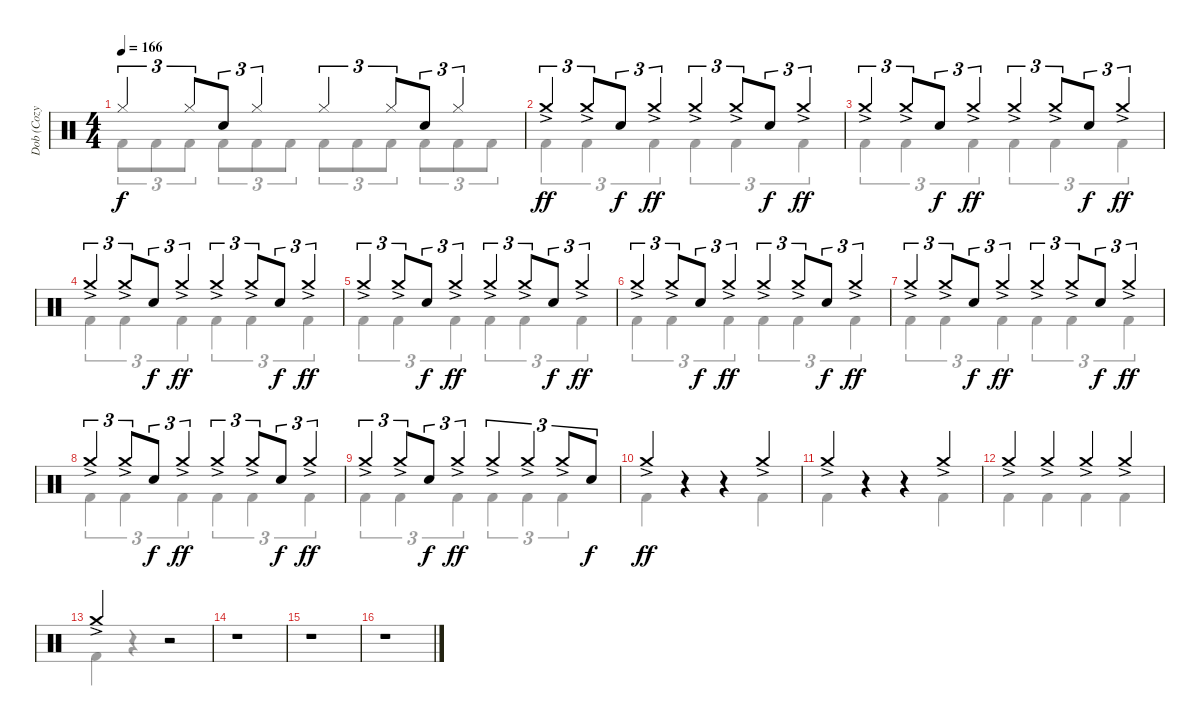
\track ("Dob (Cozy Powell)" "Dob (Cozy ") {instrument percussion}
\staff {score}
\articulation defaults
\voice
\ts (4 4)
\tempo 166
\clef neutral
\ks c "Hi-Hat (closed)".4{tu (3 2) dy f} "Hi-Hat (closed)".8{tu (3 2) beam merge} "Electric Snare (hit)".8{tu (3 2)} "Hi-Hat (closed)".4{tu (3 2)} "Hi-Hat (closed)".4{tu (3 2)} "Hi-Hat (closed)".8{tu (3 2) beam merge} "Electric Snare (hit)".8{tu (3 2)} "Hi-Hat (closed)".4{tu (3 2)}
|
"Crash medium (hit)"{ac}.4{tu (3 2) dy ff} "Crash medium (hit)"{ac}.8{tu (3 2) beam merge} "Electric Snare (hit)".8{tu (3 2) dy f} "Crash medium (hit)"{ac}.4{tu (3 2) dy ff} "Crash medium (hit)"{ac}.4{tu (3 2)} "Crash medium (hit)"{ac}.8{tu (3 2) beam merge} "Electric Snare (hit)".8{tu (3 2) dy f} "Crash medium (hit)"{ac}.4{tu (3 2) dy ff} |
"Crash medium (hit)"{ac}.4{tu (3 2)} "Crash medium (hit)"{ac}.8{tu (3 2) beam merge} "Electric Snare (hit)".8{tu (3 2) dy f} "Crash medium (hit)"{ac}.4{tu (3 2) dy ff} "Crash medium (hit)"{ac}.4{tu (3 2)} "Crash medium (hit)"{ac}.8{tu (3 2) beam merge} "Electric Snare (hit)".8{tu (3 2) dy f} "Crash medium (hit)"{ac}.4{tu (3 2) dy ff} |
"Crash medium (hit)"{ac}.4{tu (3 2)} "Crash medium (hit)"{ac}.8{tu (3 2) beam merge} "Electric Snare (hit)".8{tu (3 2) dy f} "Crash medium (hit)"{ac}.4{tu (3 2) dy ff} "Crash medium (hit)"{ac}.4{tu (3 2)} "Crash medium (hit)"{ac}.8{tu (3 2) beam merge} "Electric Snare (hit)".8{tu (3 2) dy f} "Crash medium (hit)"{ac}.4{tu (3 2) dy ff} |
"Crash medium (hit)"{ac}.4{tu (3 2)} "Crash medium (hit)"{ac}.8{tu (3 2) beam merge} "Electric Snare (hit)".8{tu (3 2) dy f} "Crash medium (hit)"{ac}.4{tu (3 2) dy ff} "Crash medium (hit)"{ac}.4{tu (3 2)} "Crash medium (hit)"{ac}.8{tu (3 2) beam merge} "Electric Snare (hit)".8{tu (3 2) dy f} "Crash medium (hit)"{ac}.4{tu (3 2) dy ff} |
"Crash medium (hit)"{ac}.4{tu (3 2)} "Crash medium (hit)"{ac}.8{tu (3 2) beam merge} "Electric Snare (hit)".8{tu (3 2) dy f} "Crash medium (hit)"{ac}.4{tu (3 2) dy ff} "Crash medium (hit)"{ac}.4{tu (3 2)} "Crash medium (hit)"{ac}.8{tu (3 2) beam merge} "Electric Snare (hit)".8{tu (3 2) dy f} "Crash medium (hit)"{ac}.4{tu (3 2) dy ff} |
"Crash medium (hit)"{ac}.4{tu (3 2)} "Crash medium (hit)"{ac}.8{tu (3 2) beam merge} "Electric Snare (hit)".8{tu (3 2) dy f} "Crash medium (hit)"{ac}.4{tu (3 2) dy ff} "Crash medium (hit)"{ac}.4{tu (3 2)} "Crash medium (hit)"{ac}.8{tu (3 2) beam merge} "Electric Snare (hit)".8{tu (3 2) dy f} "Crash medium (hit)"{ac}.4{tu (3 2) dy ff} |
"Crash medium (hit)"{ac}.4{tu (3 2)} "Crash medium (hit)"{ac}.8{tu (3 2) beam merge} "Electric Snare (hit)".8{tu (3 2) dy f} "Crash medium (hit)"{ac}.4{tu (3 2) dy ff} "Crash medium (hit)"{ac}.4{tu (3 2)} "Crash medium (hit)"{ac}.8{tu (3 2) beam merge} "Electric Snare (hit)".8{tu (3 2) dy f} "Crash medium (hit)"{ac}.4{tu (3 2) dy ff} |
"Crash medium (hit)"{ac}.4{tu (3 2)} "Crash medium (hit)"{ac}.8{tu (3 2) beam merge} "Electric Snare (hit)".8{tu (3 2) dy f} "Crash medium (hit)"{ac}.4{tu (3 2) dy ff} "Crash medium (hit)"{ac}.4{tu (3 2)} "Crash medium (hit)"{ac}.4{tu (3 2)} "Crash medium (hit)"{ac}.8{tu (3 2)} "Electric Snare (hit)".8{tu (3 2) dy f} |
"Crash medium (hit)"{ac}.4{dy ff} r.4 r.4 "Crash medium (hit)"{ac}.4 |
"Crash medium (hit)"{ac}.4 r.4 r.4 "Crash medium (hit)"{ac}.4 |
"Crash medium (hit)"{ac}.4 "Crash medium (hit)"{ac}.4 "Crash medium (hit)"{ac}.4 "Crash medium (hit)"{ac}.4 |
"Crash medium (hit)"{ac}.2 r.2 |
r.1 |
r.1 |
r.1
\voice
\clef neutral
\ottava regular
\simile none
\ks c "Kick (hit) 2".8{tu (3 2) dy f} "Kick (hit) 2".8{tu (3 2)} "Kick (hit) 2".8{tu (3 2)} "Kick (hit) 2".8{tu (3 2)} "Kick (hit) 2".8{tu (3 2)} "Kick (hit) 2".8{tu (3 2)} "Kick (hit) 2".8{tu (3 2)} "Kick (hit) 2".8{tu (3 2)} "Kick (hit) 2".8{tu (3 2)} "Kick (hit) 2".8{tu (3 2)} "Kick (hit) 2".8{tu (3 2)} "Kick (hit) 2".8{tu (3 2)}
|
"Kick (hit) 2".4{tu (3 2)} "Kick (hit) 2".4{tu (3 2)} "Kick (hit) 2".4{tu (3 2)} "Kick (hit) 2".4{tu (3 2)} "Kick (hit) 2".4{tu (3 2)} "Kick (hit) 2".4{tu (3 2)} |
"Kick (hit) 2".4{tu (3 2)} "Kick (hit) 2".4{tu (3 2)} "Kick (hit) 2".4{tu (3 2)} "Kick (hit) 2".4{tu (3 2)} "Kick (hit) 2".4{tu (3 2)} "Kick (hit) 2".4{tu (3 2)} |
"Kick (hit) 2".4{tu (3 2)} "Kick (hit) 2".4{tu (3 2)} "Kick (hit) 2".4{tu (3 2)} "Kick (hit) 2".4{tu (3 2)} "Kick (hit) 2".4{tu (3 2)} "Kick (hit) 2".4{tu (3 2)} |
"Kick (hit) 2".4{tu (3 2)} "Kick (hit) 2".4{tu (3 2)} "Kick (hit) 2".4{tu (3 2)} "Kick (hit) 2".4{tu (3 2)} "Kick (hit) 2".4{tu (3 2)} "Kick (hit) 2".4{tu (3 2)} |
"Kick (hit) 2".4{tu (3 2)} "Kick (hit) 2".4{tu (3 2)} "Kick (hit) 2".4{tu (3 2)} "Kick (hit) 2".4{tu (3 2)} "Kick (hit) 2".4{tu (3 2)} "Kick (hit) 2".4{tu (3 2)} |
"Kick (hit) 2".4{tu (3 2)} "Kick (hit) 2".4{tu (3 2)} "Kick (hit) 2".4{tu (3 2)} "Kick (hit) 2".4{tu (3 2)} "Kick (hit) 2".4{tu (3 2)} "Kick (hit) 2".4{tu (3 2)} |
"Kick (hit) 2".4{tu (3 2)} "Kick (hit) 2".4{tu (3 2)} "Kick (hit) 2".4{tu (3 2)} "Kick (hit) 2".4{tu (3 2)} "Kick (hit) 2".4{tu (3 2)} "Kick (hit) 2".4{tu (3 2)} |
"Kick (hit) 2".4{tu (3 2)} "Kick (hit) 2".4{tu (3 2)} "Kick (hit) 2".4{tu (3 2)} "Kick (hit) 2".4{tu (3 2)} "Kick (hit) 2".4{tu (3 2)} "Kick (hit) 2".4{tu (3 2)} |
"Kick (hit) 2".4 r.4 r.4 "Kick (hit) 2".4 |
"Kick (hit) 2".4 r.4 r.4 "Kick (hit) 2".4 |
"Kick (hit) 2".4 "Kick (hit) 2".4 "Kick (hit) 2".4 "Kick (hit) 2".4 |
"Kick (hit) 2".4 r.4 r.2 |
r.1 |
r.1 |
r.1
